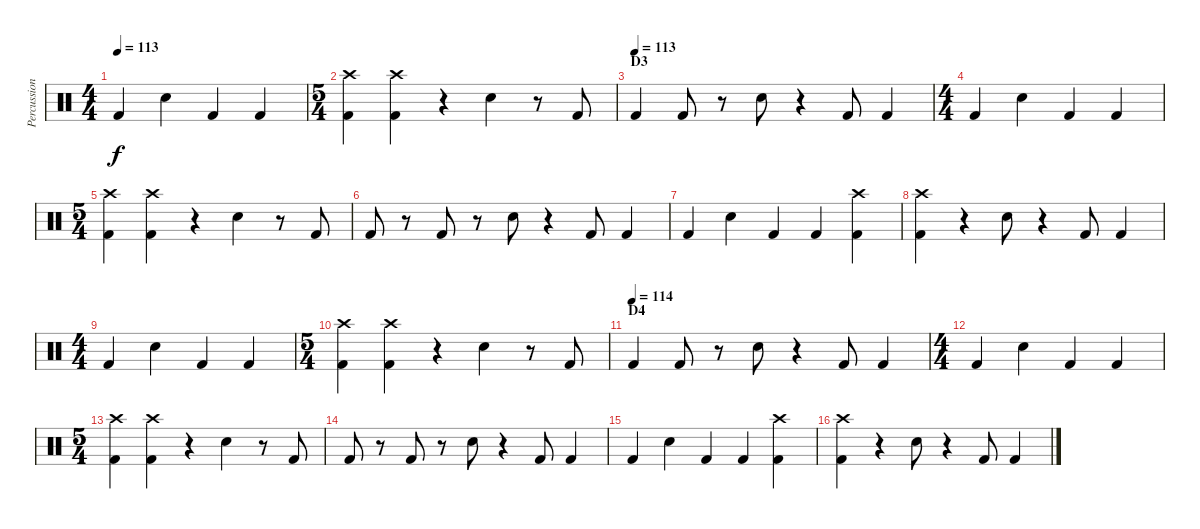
\track ("Percussion" "Percussion") {instrument percussion}
\staff {score}
\articulation defaults
\ts (4 4)
\tempo 113
\clef neutral
\ks c "Kick (hit) 2".4{dy f} "Electric Snare (hit)".4 "Kick (hit) 2".4 "Kick (hit) 2".4
|
\ts (5 4)
("Kick (hit) 2" "Crash high (hit)").4 ("Kick (hit) 2" "Crash high (hit)").4 r.4 "Electric Snare (hit)".4 r.8 "Kick (hit) 2".8 |
\section ("" "D3")
\tempo (113)
"Kick (hit) 2".4 "Kick (hit) 2".8 r.8 "Electric Snare (hit)".8 r.4 "Kick (hit) 2".8 "Kick (hit) 2".4 |
\ts (4 4)
"Kick (hit) 2".4 "Electric Snare (hit)".4 "Kick (hit) 2".4 "Kick (hit) 2".4 |
\ts (5 4)
("Kick (hit) 2" "Crash high (hit)").4 ("Kick (hit) 2" "Crash high (hit)").4 r.4 "Electric Snare (hit)".4 r.8 "Kick (hit) 2".8 |
"Kick (hit) 2".8 r.8 "Kick (hit) 2".8 r.8 "Electric Snare (hit)".8 r.4 "Kick (hit) 2".8 "Kick (hit) 2".4 |
"Kick (hit) 2".4 "Electric Snare (hit)".4 "Kick (hit) 2".4 "Kick (hit) 2".4 ("Kick (hit) 2" "Crash high (hit)").4 |
("Kick (hit) 2" "Crash high (hit)").4 r.4 "Electric Snare (hit)".8 r.4 "Kick (hit) 2".8 "Kick (hit) 2".4 |
\ts (4 4)
"Kick (hit) 2".4 "Electric Snare (hit)".4 "Kick (hit) 2".4 "Kick (hit) 2".4 |
\ts (5 4)
("Kick (hit) 2" "Crash high (hit)").4 ("Kick (hit) 2" "Crash high (hit)").4 r.4 "Electric Snare (hit)".4 r.8 "Kick (hit) 2".8 |
\section ("" "D4")
\tempo (114)
"Kick (hit) 2".4 "Kick (hit) 2".8 r.8 "Electric Snare (hit)".8 r.4 "Kick (hit) 2".8 "Kick (hit) 2".4 |
\ts (4 4)
"Kick (hit) 2".4 "Electric Snare (hit)".4 "Kick (hit) 2".4 "Kick (hit) 2".4 |
\ts (5 4)
("Kick (hit) 2" "Crash high (hit)").4 ("Kick (hit) 2" "Crash high (hit)").4 r.4 "Electric Snare (hit)".4 r.8 "Kick (hit) 2".8 |
"Kick (hit) 2".8 r.8 "Kick (hit) 2".8 r.8 "Electric Snare (hit)".8 r.4 "Kick (hit) 2".8 "Kick (hit) 2".4 |
"Kick (hit) 2".4 "Electric Snare (hit)".4 "Kick (hit) 2".4 "Kick (hit) 2".4 ("Kick (hit) 2" "Crash high (hit)").4 |
("Kick (hit) 2" "Crash high (hit)").4 r.4 "Electric Snare (hit)".8 r.4 "Kick (hit) 2".8 "Kick (hit) 2".4
